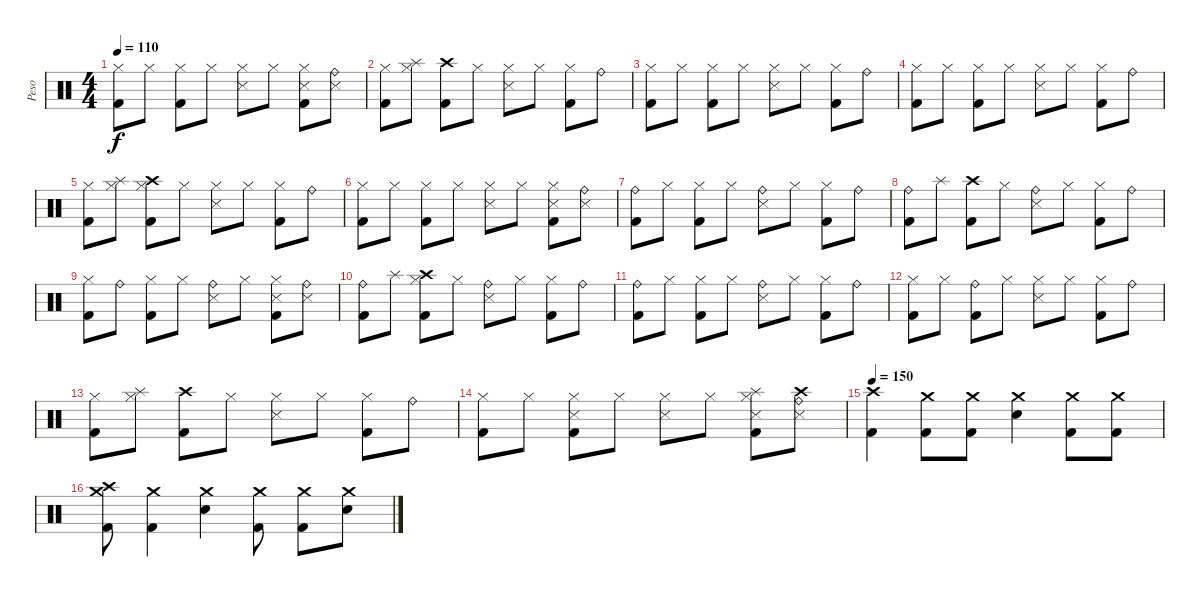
\track ("Peso" "Peso") {instrument percussion}
\staff {score}
\articulation defaults
\ts (4 4)
\tempo 110
\clef neutral
\ks c
("Hi-Hat (closed)" "Kick (hit) 2").8{dy f} "Hi-Hat (closed)"{x}.8 ("Hi-Hat (closed)" "Kick (hit) 2").8 "Hi-Hat (closed)"{x}.8 ("Hi-Hat (closed)" "Snare (side stick) 3").8 "Hi-Hat (closed)"{x}.8 ("Hi-Hat (closed)" "Snare (side stick) 3" "Kick (hit) 2").8 ("Ride (bell)" "Snare (side stick) 3").8 |
("Hi-Hat (closed)" "Kick (hit) 2").8 ("Splash (hit)" "Hi-Hat (closed)"{x}).8 ("Crash high (hit)" "Kick (hit) 2").8 "Hi-Hat (closed)"{x}.8 ("Hi-Hat (closed)" "Snare (side stick) 3").8 "Hi-Hat (closed)"{x}.8 ("Hi-Hat (closed)" "Kick (hit) 2").8 "Ride (bell)".8 |
("Hi-Hat (closed)" "Kick (hit) 2").8 "Hi-Hat (closed)"{x}.8 ("Hi-Hat (closed)" "Kick (hit) 2").8 "Hi-Hat (closed)"{x}.8 ("Hi-Hat (closed)" "Snare (side stick) 3").8 "Hi-Hat (closed)"{x}.8 ("Hi-Hat (closed)" "Kick (hit) 2").8 "Ride (bell)".8 |
("Hi-Hat (closed)" "Kick (hit) 2").8 "Hi-Hat (closed)"{x}.8 ("Hi-Hat (closed)" "Kick (hit) 2").8 "Hi-Hat (closed)"{x}.8 ("Hi-Hat (closed)" "Snare (side stick) 3").8 "Hi-Hat (closed)"{x}.8 ("Hi-Hat (closed)" "Kick (hit) 2").8 "Ride (bell)".8 |
("Hi-Hat (closed)" "Kick (hit) 2").8 ("Splash (hit)" "Hi-Hat (closed)"{x}).8 ("Crash high (hit)" "Hi-Hat (closed)" "Kick (hit) 2").8 "Hi-Hat (closed)"{x}.8 ("Hi-Hat (closed)" "Snare (side stick) 3").8 "Hi-Hat (closed)"{x}.8 ("Hi-Hat (closed)" "Kick (hit) 2").8 "Ride (bell)".8 |
("Hi-Hat (closed)" "Kick (hit) 2").8 "Hi-Hat (closed)"{x}.8 ("Hi-Hat (closed)" "Kick (hit) 2").8 "Hi-Hat (closed)"{x}.8 ("Hi-Hat (closed)" "Snare (side stick) 3").8 "Hi-Hat (closed)"{x}.8 ("Hi-Hat (closed)" "Snare (side stick) 3" "Kick (hit) 2").8 ("Ride (bell)" "Snare (side stick) 3").8 |
("Ride (bell)" "Kick (hit) 2").8 "Hi-Hat (closed)".8 ("Hi-Hat (closed)" "Kick (hit) 2").8 "Hi-Hat (closed)".8 ("Ride (bell)" "Snare (side stick) 3").8 "Hi-Hat (closed)".8 ("Hi-Hat (closed)" "Kick (hit) 2").8 "Ride (bell)".8 |
("Ride (bell)" "Kick (hit) 2").8 "Splash (hit)".8 ("Crash high (hit)" "Kick (hit) 2").8 "Hi-Hat (closed)".8 ("Ride (bell)" "Snare (side stick) 3").8 "Hi-Hat (closed)".8 ("Hi-Hat (closed)" "Kick (hit) 2").8 "Ride (bell)".8 |
("Hi-Hat (closed)" "Kick (hit) 2").8 "Ride (bell)".8 ("Hi-Hat (closed)" "Kick (hit) 2").8 "Hi-Hat (closed)".8 ("Ride (bell)" "Snare (side stick) 3").8 "Hi-Hat (closed)".8 ("Hi-Hat (closed)" "Snare (side stick) 3" "Kick (hit) 2").8 ("Ride (bell)" "Snare (side stick) 3").8 |
("Ride (bell)" "Kick (hit) 2").8 "Splash (hit)".8 ("Crash high (hit)" "Hi-Hat (closed)" "Kick (hit) 2").8 "Hi-Hat (closed)".8 ("Ride (bell)" "Snare (side stick) 3").8 "Hi-Hat (closed)".8 ("Hi-Hat (closed)" "Kick (hit) 2").8 "Ride (bell)".8 |
("Ride (bell)" "Kick (hit) 2").8 "Hi-Hat (closed)".8 ("Hi-Hat (closed)" "Kick (hit) 2").8 "Hi-Hat (closed)".8 ("Ride (bell)" "Snare (side stick) 3").8 "Hi-Hat (closed)".8 ("Hi-Hat (closed)" "Kick (hit) 2").8 "Ride (bell)".8 |
("Hi-Hat (closed)" "Kick (hit) 2").8 "Hi-Hat (closed)".8 ("Ride (bell)" "Kick (hit) 2").8 "Hi-Hat (closed)".8 ("Hi-Hat (closed)" "Snare (side stick) 3").8 "Hi-Hat (closed)".8 ("Hi-Hat (closed)" "Kick (hit) 2").8 "Ride (bell)".8 |
("Hi-Hat (closed)" "Kick (hit) 2").8 ("Splash (hit)" "Hi-Hat (closed)"{x}).8 ("Crash high (hit)" "Kick (hit) 2").8 "Hi-Hat (closed)".8 ("Hi-Hat (closed)" "Snare (side stick) 3").8 "Hi-Hat (closed)".8 ("Hi-Hat (closed)" "Kick (hit) 2").8 "Ride (bell)".8 |
("Hi-Hat (closed)" "Kick (hit) 2").8 "Hi-Hat (closed)".8 ("Hi-Hat (closed)" "Snare (side stick) 3" "Kick (hit) 2").8 "Hi-Hat (closed)".8 ("Hi-Hat (closed)" "Snare (side stick) 3").8 "Hi-Hat (closed)".8 ("Splash (hit)" "Hi-Hat (closed)" "Snare (side stick) 3" "Kick (hit) 2").8 ("Crash high (hit)" "Ride (bell)" "Snare (side stick) 3").8 |
\tempo 150
("Crash high (hit)" "Kick (hit) 2").4 ("Crash medium (hit)" "Kick (hit) 2").8 ("Crash medium (hit)" "Kick (hit) 2").8 ("Crash medium (hit)" "Snare (hit) 2").4 ("Crash medium (hit)" "Kick (hit) 2").8 ("Crash medium (hit)" "Kick (hit) 2").8 |
("Crash high (hit)" "Crash medium (hit)" "Kick (hit) 2").8 ("Crash medium (hit)" "Kick (hit) 2").4 ("Crash medium (hit)" "Snare (hit) 2").4 ("Crash medium (hit)" "Kick (hit) 2").8 ("Crash medium (hit)" "Kick (hit) 2").8 ("Crash medium (hit)" "Snare (hit) 2").8
